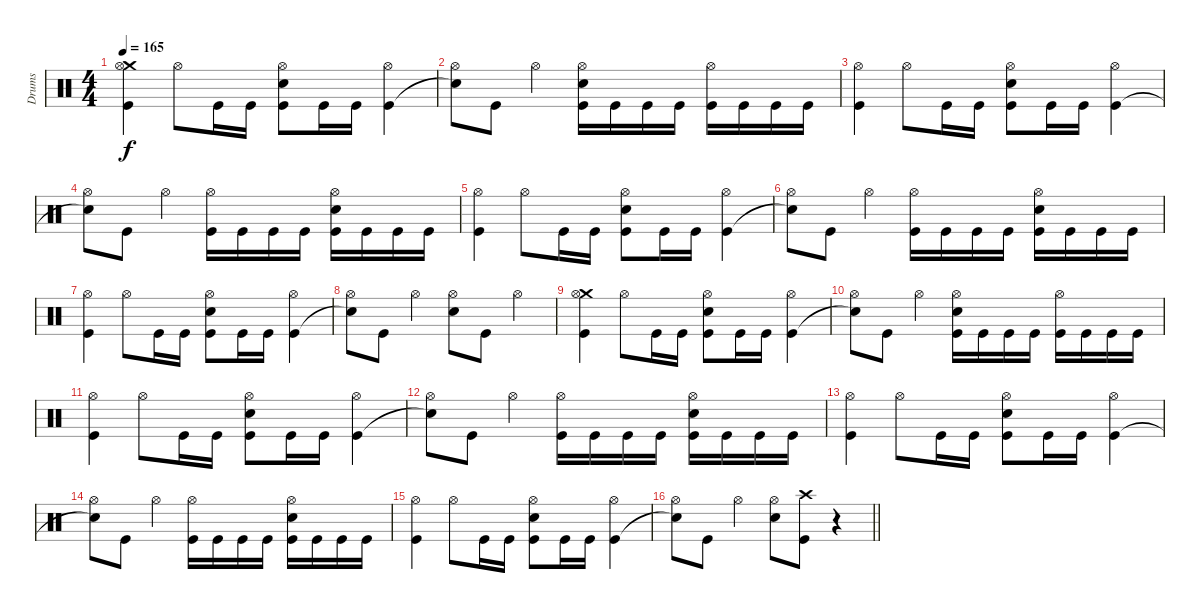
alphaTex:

\track ("Drums" "Drums") {instrument percussion}
\staff {score}
\articulation defaults
\ts (4 4)
\tempo 165
\clef neutral
\ks c
("Crash medium (hit)" "Hi-Hat (open)" "Kick (hit)").4{dy f} "Hi-Hat (open)".8 "Kick (hit)".16 "Kick (hit)".16 ("Hi-Hat (open)" "Electric Snare (hit)" "Kick (hit)").8 "Kick (hit)".16 "Kick (hit)".16 ("Hi-Hat (open)" "Kick (hit)").4 |
("Hi-Hat (open)" "Snare (hit)"{t}).8 "Kick (hit)".8 "Hi-Hat (open)".4 ("Hi-Hat (open)" "Electric Snare (hit)" "Kick (hit)").16 "Kick (hit)".16 "Kick (hit)".16 "Kick (hit)".16 ("Hi-Hat (open)" "Kick (hit)").16 "Kick (hit)".16 "Kick (hit)".16 "Kick (hit)".16 |
("Hi-Hat (open)" "Kick (hit)").4 "Hi-Hat (open)".8 "Kick (hit)".16 "Kick (hit)".16 ("Hi-Hat (open)" "Electric Snare (hit)" "Kick (hit)").8 "Kick (hit)".16 "Kick (hit)".16 ("Hi-Hat (open)" "Kick (hit)").4 |
("Hi-Hat (open)" "Snare (hit)"{t}).8 "Kick (hit)".8 "Hi-Hat (open)".4 ("Hi-Hat (open)" "Kick (hit)").16 "Kick (hit)".16 "Kick (hit)".16 "Kick (hit)".16 ("Hi-Hat (open)" "Electric Snare (hit)" "Kick (hit)").16 "Kick (hit)".16 "Kick (hit)".16 "Kick (hit)".16 |
("Hi-Hat (open)" "Kick (hit)").4 "Hi-Hat (open)".8 "Kick (hit)".16 "Kick (hit)".16 ("Hi-Hat (open)" "Electric Snare (hit)" "Kick (hit)").8 "Kick (hit)".16 "Kick (hit)".16 ("Hi-Hat (open)" "Kick (hit)").4 |
("Hi-Hat (open)" "Snare (hit)"{t}).8 "Kick (hit)".8 "Hi-Hat (open)".4 ("Hi-Hat (open)" "Kick (hit)").16 "Kick (hit)".16 "Kick (hit)".16 "Kick (hit)".16 ("Hi-Hat (open)" "Electric Snare (hit)" "Kick (hit)").16 "Kick (hit)".16 "Kick (hit)".16 "Kick (hit)".16 |
("Hi-Hat (open)" "Kick (hit)").4 "Hi-Hat (open)".8 "Kick (hit)".16 "Kick (hit)".16 ("Hi-Hat (open)" "Electric Snare (hit)" "Kick (hit)").8 "Kick (hit)".16 "Kick (hit)".16 ("Hi-Hat (open)" "Kick (hit)").4 |
("Hi-Hat (open)" "Snare (hit)"{t}).8 "Kick (hit)".8 "Hi-Hat (open)".4 ("Hi-Hat (open)" "Electric Snare (hit)").8 "Kick (hit)".8 "Hi-Hat (open)".4 |
("Crash medium (hit)" "Hi-Hat (open)" "Kick (hit)").4 "Hi-Hat (open)".8 "Kick (hit)".16 "Kick (hit)".16 ("Hi-Hat (open)" "Electric Snare (hit)" "Kick (hit)").8 "Kick (hit)".16 "Kick (hit)".16 ("Hi-Hat (open)" "Kick (hit)").4 |
("Hi-Hat (open)" "Snare (hit)"{t}).8 "Kick (hit)".8 "Hi-Hat (open)".4 ("Hi-Hat (open)" "Electric Snare (hit)" "Kick (hit)").16 "Kick (hit)".16 "Kick (hit)".16 "Kick (hit)".16 ("Hi-Hat (open)" "Kick (hit)").16 "Kick (hit)".16 "Kick (hit)".16 "Kick (hit)".16 |
("Hi-Hat (open)" "Kick (hit)").4 "Hi-Hat (open)".8 "Kick (hit)".16 "Kick (hit)".16 ("Hi-Hat (open)" "Electric Snare (hit)" "Kick (hit)").8 "Kick (hit)".16 "Kick (hit)".16 ("Hi-Hat (open)" "Kick (hit)").4 |
("Hi-Hat (open)" "Snare (hit)"{t}).8 "Kick (hit)".8 "Hi-Hat (open)".4 ("Hi-Hat (open)" "Kick (hit)").16 "Kick (hit)".16 "Kick (hit)".16 "Kick (hit)".16 ("Hi-Hat (open)" "Electric Snare (hit)" "Kick (hit)").16 "Kick (hit)".16 "Kick (hit)".16 "Kick (hit)".16 |
("Hi-Hat (open)" "Kick (hit)").4 "Hi-Hat (open)".8 "Kick (hit)".16 "Kick (hit)".16 ("Hi-Hat (open)" "Electric Snare (hit)" "Kick (hit)").8 "Kick (hit)".16 "Kick (hit)".16 ("Hi-Hat (open)" "Kick (hit)").4 |
("Hi-Hat (open)" "Snare (hit)"{t}).8 "Kick (hit)".8 "Hi-Hat (open)".4 ("Hi-Hat (open)" "Kick (hit)").16 "Kick (hit)".16 "Kick (hit)".16 "Kick (hit)".16 ("Hi-Hat (open)" "Electric Snare (hit)" "Kick (hit)").16 "Kick (hit)".16 "Kick (hit)".16 "Kick (hit)".16 |
("Hi-Hat (open)" "Kick (hit)").4 "Hi-Hat (open)".8 "Kick (hit)".16 "Kick (hit)".16 ("Hi-Hat (open)" "Electric Snare (hit)" "Kick (hit)").8 "Kick (hit)".16 "Kick (hit)".16 ("Hi-Hat (open)" "Kick (hit)").4 |
\barLineRight lightlight
("Hi-Hat (open)" "Snare (hit)"{t}).8 "Kick (hit)".8 "Hi-Hat (open)".4 ("Hi-Hat (open)" "Electric Snare (hit)").8 ("Crash high (hit)" "Kick (hit)").8 r.4
